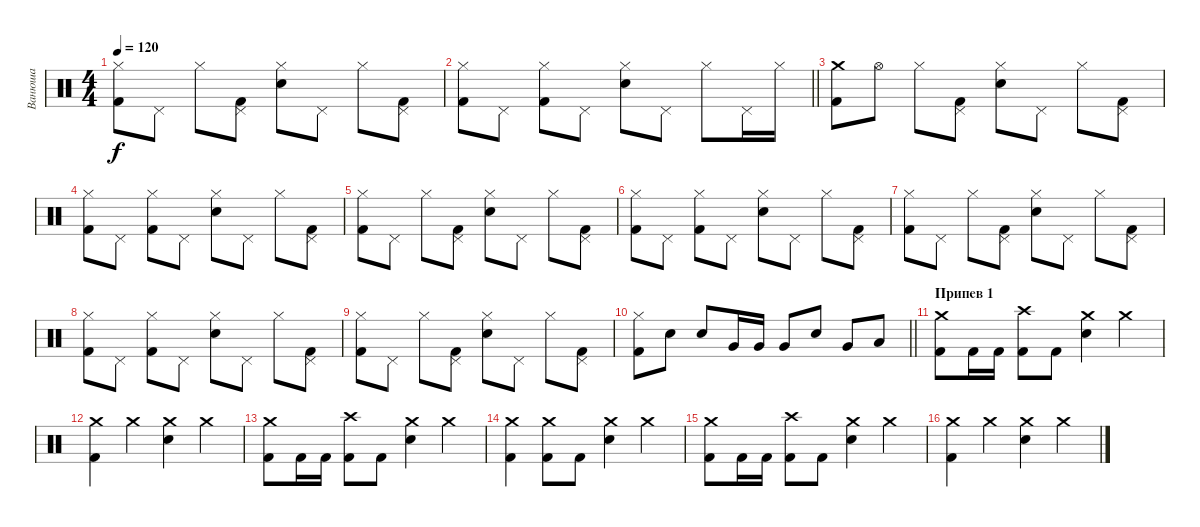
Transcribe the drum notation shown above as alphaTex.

\track ("Ванюша" "Ванюша") {instrument percussion}
\staff {score}
\articulation defaults
\ts (4 4)
\tempo 120
\clef neutral
\ks c
("Hi-Hat (closed)" "Kick (hit) 2").8{dy f} "Pedal Hi-Hat (hit)".8 "Hi-Hat (closed)".8 ("Pedal Hi-Hat (hit)" "Kick (hit) 2").8 ("Hi-Hat (closed)" "Snare (hit) 2").8 "Pedal Hi-Hat (hit)".8 "Hi-Hat (closed)".8 ("Pedal Hi-Hat (hit)" "Kick (hit) 2").8 |
\barLineRight lightlight
("Hi-Hat (closed)" "Kick (hit) 2").8 "Pedal Hi-Hat (hit)".8 ("Hi-Hat (closed)" "Kick (hit) 2").8 "Pedal Hi-Hat (hit)".8 ("Hi-Hat (closed)" "Snare (hit) 2").8 "Pedal Hi-Hat (hit)".8 "Hi-Hat (closed)".8 "Pedal Hi-Hat (hit)".16 "Hi-Hat (closed)".16 |
("Crash medium (hit)" "Kick (hit) 2").8 "Hi-Hat (open)".8 "Hi-Hat (closed)".8 ("Pedal Hi-Hat (hit)" "Kick (hit) 2").8 ("Hi-Hat (closed)" "Snare (hit) 2").8 "Pedal Hi-Hat (hit)".8 "Hi-Hat (closed)".8 ("Pedal Hi-Hat (hit)" "Kick (hit) 2").8 |
("Hi-Hat (closed)" "Kick (hit) 2").8 "Pedal Hi-Hat (hit)".8 ("Hi-Hat (closed)" "Kick (hit) 2").8 "Pedal Hi-Hat (hit)".8 ("Hi-Hat (closed)" "Snare (hit) 2").8 "Pedal Hi-Hat (hit)".8 "Hi-Hat (closed)".8 ("Pedal Hi-Hat (hit)" "Kick (hit) 2").8 |
("Hi-Hat (closed)" "Kick (hit) 2").8 "Pedal Hi-Hat (hit)".8 "Hi-Hat (closed)".8 ("Pedal Hi-Hat (hit)" "Kick (hit) 2").8 ("Hi-Hat (closed)" "Snare (hit) 2").8 "Pedal Hi-Hat (hit)".8 "Hi-Hat (closed)".8 ("Pedal Hi-Hat (hit)" "Kick (hit) 2").8 |
("Hi-Hat (closed)" "Kick (hit) 2").8 "Pedal Hi-Hat (hit)".8 ("Hi-Hat (closed)" "Kick (hit) 2").8 "Pedal Hi-Hat (hit)".8 ("Hi-Hat (closed)" "Snare (hit) 2").8 "Pedal Hi-Hat (hit)".8 "Hi-Hat (closed)".8 ("Pedal Hi-Hat (hit)" "Kick (hit) 2").8 |
("Hi-Hat (closed)" "Kick (hit) 2").8 "Pedal Hi-Hat (hit)".8 "Hi-Hat (closed)".8 ("Pedal Hi-Hat (hit)" "Kick (hit) 2").8 ("Hi-Hat (closed)" "Snare (hit) 2").8 "Pedal Hi-Hat (hit)".8 "Hi-Hat (closed)".8 ("Pedal Hi-Hat (hit)" "Kick (hit) 2").8 |
("Hi-Hat (closed)" "Kick (hit) 2").8 "Pedal Hi-Hat (hit)".8 ("Hi-Hat (closed)" "Kick (hit) 2").8 "Pedal Hi-Hat (hit)".8 ("Hi-Hat (closed)" "Snare (hit) 2").8 "Pedal Hi-Hat (hit)".8 "Hi-Hat (closed)".8 ("Pedal Hi-Hat (hit)" "Kick (hit) 2").8 |
("Hi-Hat (closed)" "Kick (hit) 2").8 "Pedal Hi-Hat (hit)".8 "Hi-Hat (closed)".8 ("Pedal Hi-Hat (hit)" "Kick (hit) 2").8 ("Hi-Hat (closed)" "Snare (hit) 2").8 "Pedal Hi-Hat (hit)".8 "Hi-Hat (closed)".8 ("Pedal Hi-Hat (hit)" "Kick (hit) 2").8 |
\barLineRight lightlight
("Hi-Hat (closed)" "Kick (hit) 2").8 "Snare (hit) 2".8 "Snare (hit) 2".8 "Very Low Tom (hit)".16 "Very Low Tom (hit)".16 "Very Low Tom (hit)".8 "Snare (hit) 2".8 "Very Low Tom (hit)".8 "Low Tom (hit)".8 |
\section ("" "Припев 1")
("Crash medium (hit)" "Kick (hit) 2").8 "Kick (hit) 2".16 "Kick (hit) 2".16 ("Crash high (hit)" "Kick (hit) 2").8 "Kick (hit) 2".8 ("Crash medium (hit)" "Snare (hit) 2").4 "Crash medium (hit)".4 |
("Crash medium (hit)" "Kick (hit) 2").4 "Crash medium (hit)".4 ("Crash medium (hit)" "Snare (hit) 2").4 "Crash medium (hit)".4 |
("Crash medium (hit)" "Kick (hit) 2").8 "Kick (hit) 2".16 "Kick (hit) 2".16 ("Crash high (hit)" "Kick (hit) 2").8 "Kick (hit) 2".8 ("Crash medium (hit)" "Snare (hit) 2").4 "Crash medium (hit)".4 |
("Crash medium (hit)" "Kick (hit) 2").4 ("Crash medium (hit)" "Kick (hit) 2").8 "Kick (hit) 2".8 ("Crash medium (hit)" "Snare (hit) 2").4 "Crash medium (hit)".4 |
("Crash medium (hit)" "Kick (hit) 2").8 "Kick (hit) 2".16 "Kick (hit) 2".16 ("Crash high (hit)" "Kick (hit) 2").8 "Kick (hit) 2".8 ("Crash medium (hit)" "Snare (hit) 2").4 "Crash medium (hit)".4 |
("Crash medium (hit)" "Kick (hit) 2").4 "Crash medium (hit)".4 ("Crash medium (hit)" "Snare (hit) 2").4 "Crash medium (hit)".4
